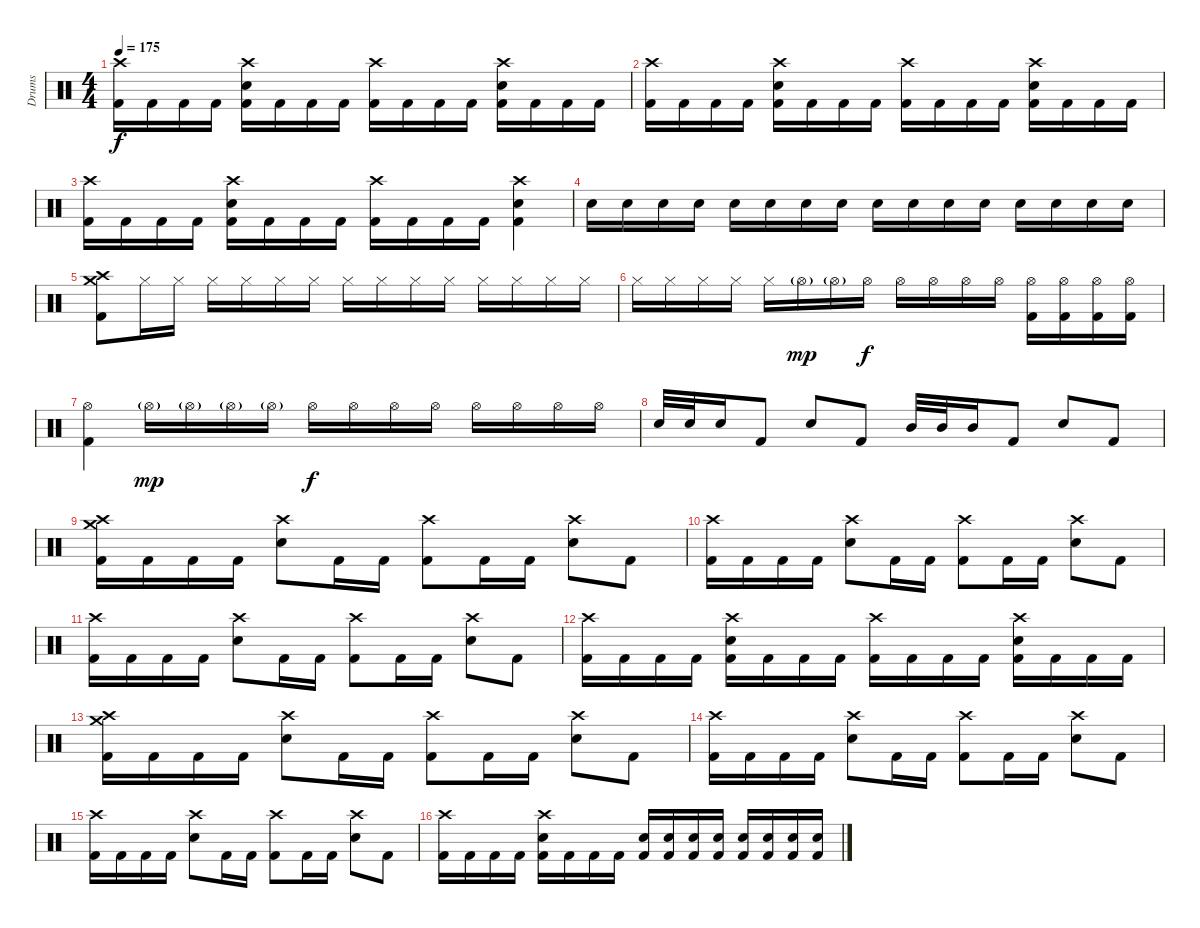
\track ("Drums" "Drums") {instrument percussion}
\staff {score}
\articulation defaults
\ts (4 4)
\tempo 175
\clef neutral
\ks c
("Crash high (hit)" "Kick (hit) 2").16{dy f} "Kick (hit) 2".16 "Kick (hit) 2".16 "Kick (hit) 2".16 ("Crash high (hit)" "Snare (hit) 2" "Kick (hit) 2").16 "Kick (hit) 2".16 "Kick (hit) 2".16 "Kick (hit) 2".16 ("Crash high (hit)" "Kick (hit) 2").16 "Kick (hit) 2".16 "Kick (hit) 2".16 "Kick (hit) 2".16 ("Crash high (hit)" "Snare (hit) 2" "Kick (hit) 2").16 "Kick (hit) 2".16 "Kick (hit) 2".16 "Kick (hit) 2".16 |
("Crash high (hit)" "Kick (hit) 2").16 "Kick (hit) 2".16 "Kick (hit) 2".16 "Kick (hit) 2".16 ("Crash high (hit)" "Snare (hit) 2" "Kick (hit) 2").16 "Kick (hit) 2".16 "Kick (hit) 2".16 "Kick (hit) 2".16 ("Crash high (hit)" "Kick (hit) 2").16 "Kick (hit) 2".16 "Kick (hit) 2".16 "Kick (hit) 2".16 ("Crash high (hit)" "Snare (hit) 2" "Kick (hit) 2").16 "Kick (hit) 2".16 "Kick (hit) 2".16 "Kick (hit) 2".16 |
("Crash high (hit)" "Kick (hit) 2").16 "Kick (hit) 2".16 "Kick (hit) 2".16 "Kick (hit) 2".16 ("Crash high (hit)" "Snare (hit) 2" "Kick (hit) 2").16 "Kick (hit) 2".16 "Kick (hit) 2".16 "Kick (hit) 2".16 ("Crash high (hit)" "Kick (hit) 2").16 "Kick (hit) 2".16 "Kick (hit) 2".16 "Kick (hit) 2".16 ("Crash high (hit)" "Snare (hit) 2" "Kick (hit) 2").4 |
"Snare (hit) 2".16 "Snare (hit) 2".16 "Snare (hit) 2".16 "Snare (hit) 2".16 "Snare (hit) 2".16 "Snare (hit) 2".16 "Snare (hit) 2".16 "Snare (hit) 2".16 "Snare (hit) 2".16 "Snare (hit) 2".16 "Snare (hit) 2".16 "Snare (hit) 2".16 "Snare (hit) 2".16 "Snare (hit) 2".16 "Snare (hit) 2".16 "Snare (hit) 2".16 |
("Crash medium (hit)" "Crash high (hit)" "Kick (hit) 2").8 "Hi-Hat (closed)".16 "Hi-Hat (closed)".16 "Hi-Hat (closed)".16 "Hi-Hat (closed)".16 "Hi-Hat (closed)".16 "Hi-Hat (closed)".16 "Hi-Hat (closed)".16 "Hi-Hat (closed)".16 "Hi-Hat (closed)".16 "Hi-Hat (closed)".16 "Hi-Hat (closed)".16 "Hi-Hat (closed)".16 "Hi-Hat (closed)".16 "Hi-Hat (closed)".16 |
"Hi-Hat (closed)".16 "Hi-Hat (closed)".16 "Hi-Hat (closed)".16 "Hi-Hat (closed)".16 "Hi-Hat (closed)".16 "Hi-Hat (open)"{g}.16{dy mp} "Hi-Hat (open)"{g}.16 "Hi-Hat (open)".16{dy f} "Hi-Hat (open)".16 "Hi-Hat (open)".16 "Hi-Hat (open)".16 "Hi-Hat (open)".16 ("Hi-Hat (open)" "Kick (hit) 2").16 ("Hi-Hat (open)" "Kick (hit) 2").16 ("Hi-Hat (open)" "Kick (hit) 2").16 ("Hi-Hat (open)" "Kick (hit) 2").16 |
("Hi-Hat (open)" "Kick (hit) 2").4 "Hi-Hat (open)"{g}.16{dy mp} "Hi-Hat (open)"{g}.16 "Hi-Hat (open)"{g}.16 "Hi-Hat (open)"{g}.16 "Hi-Hat (open)".16{dy f} "Hi-Hat (open)".16 "Hi-Hat (open)".16 "Hi-Hat (open)".16 "Hi-Hat (open)".16 "Hi-Hat (open)".16 "Hi-Hat (open)".16 "Hi-Hat (open)".16 |
"Snare (hit) 2".32 "Snare (hit) 2".32 "Snare (hit) 2".16 "Kick (hit) 2".8 "Snare (hit) 2".8 "Kick (hit) 2".8 "Mid Tom (hit)".32 "Mid Tom (hit)".32 "Mid Tom (hit)".16 "Kick (hit) 2".8 "Snare (hit) 2".8 "Kick (hit) 2".8 |
("Crash medium (hit)" "Crash high (hit)" "Kick (hit) 2").16 "Kick (hit) 2".16 "Kick (hit) 2".16 "Kick (hit) 2".16 ("Crash high (hit)" "Snare (hit) 2").8 "Kick (hit) 2".16 "Kick (hit) 2".16 ("Crash high (hit)" "Kick (hit) 2").8 "Kick (hit) 2".16 "Kick (hit) 2".16 ("Crash high (hit)" "Snare (hit) 2").8 "Kick (hit) 2".8 |
("Crash high (hit)" "Kick (hit) 2").16 "Kick (hit) 2".16 "Kick (hit) 2".16 "Kick (hit) 2".16 ("Crash high (hit)" "Snare (hit) 2").8 "Kick (hit) 2".16 "Kick (hit) 2".16 ("Crash high (hit)" "Kick (hit) 2").8 "Kick (hit) 2".16 "Kick (hit) 2".16 ("Crash high (hit)" "Snare (hit) 2").8 "Kick (hit) 2".8 |
("Crash high (hit)" "Kick (hit) 2").16 "Kick (hit) 2".16 "Kick (hit) 2".16 "Kick (hit) 2".16 ("Crash high (hit)" "Snare (hit) 2").8 "Kick (hit) 2".16 "Kick (hit) 2".16 ("Crash high (hit)" "Kick (hit) 2").8 "Kick (hit) 2".16 "Kick (hit) 2".16 ("Crash high (hit)" "Snare (hit) 2").8 "Kick (hit) 2".8 |
("Crash high (hit)" "Kick (hit) 2").16 "Kick (hit) 2".16 "Kick (hit) 2".16 "Kick (hit) 2".16 ("Crash high (hit)" "Snare (hit) 2" "Kick (hit) 2").16 "Kick (hit) 2".16 "Kick (hit) 2".16 "Kick (hit) 2".16 ("Crash high (hit)" "Kick (hit) 2").16 "Kick (hit) 2".16 "Kick (hit) 2".16 "Kick (hit) 2".16 ("Crash high (hit)" "Snare (hit) 2" "Kick (hit) 2").16 "Kick (hit) 2".16 "Kick (hit) 2".16 "Kick (hit) 2".16 |
("Crash medium (hit)" "Crash high (hit)" "Kick (hit) 2").16 "Kick (hit) 2".16 "Kick (hit) 2".16 "Kick (hit) 2".16 ("Crash high (hit)" "Snare (hit) 2").8 "Kick (hit) 2".16 "Kick (hit) 2".16 ("Crash high (hit)" "Kick (hit) 2").8 "Kick (hit) 2".16 "Kick (hit) 2".16 ("Crash high (hit)" "Snare (hit) 2").8 "Kick (hit) 2".8 |
("Crash high (hit)" "Kick (hit) 2").16 "Kick (hit) 2".16 "Kick (hit) 2".16 "Kick (hit) 2".16 ("Crash high (hit)" "Snare (hit) 2").8 "Kick (hit) 2".16 "Kick (hit) 2".16 ("Crash high (hit)" "Kick (hit) 2").8 "Kick (hit) 2".16 "Kick (hit) 2".16 ("Crash high (hit)" "Snare (hit) 2").8 "Kick (hit) 2".8 |
("Crash high (hit)" "Kick (hit) 2").16 "Kick (hit) 2".16 "Kick (hit) 2".16 "Kick (hit) 2".16 ("Crash high (hit)" "Snare (hit) 2").8 "Kick (hit) 2".16 "Kick (hit) 2".16 ("Crash high (hit)" "Kick (hit) 2").8 "Kick (hit) 2".16 "Kick (hit) 2".16 ("Crash high (hit)" "Snare (hit) 2").8 "Kick (hit) 2".8 |
("Crash high (hit)" "Kick (hit) 2").16 "Kick (hit) 2".16 "Kick (hit) 2".16 "Kick (hit) 2".16 ("Crash high (hit)" "Snare (hit) 2" "Kick (hit) 2").16 "Kick (hit) 2".16 "Kick (hit) 2".16 "Kick (hit) 2".16 ("Snare (hit) 2" "Kick (hit) 2").16 ("Snare (hit) 2" "Kick (hit) 2").16 ("Snare (hit) 2" "Kick (hit) 2").16 ("Snare (hit) 2" "Kick (hit) 2").16 ("Snare (hit) 2" "Kick (hit) 2").16 ("Snare (hit) 2" "Kick (hit) 2").16 ("Snare (hit) 2" "Kick (hit) 2").16 ("Snare (hit) 2" "Kick (hit) 2").16
